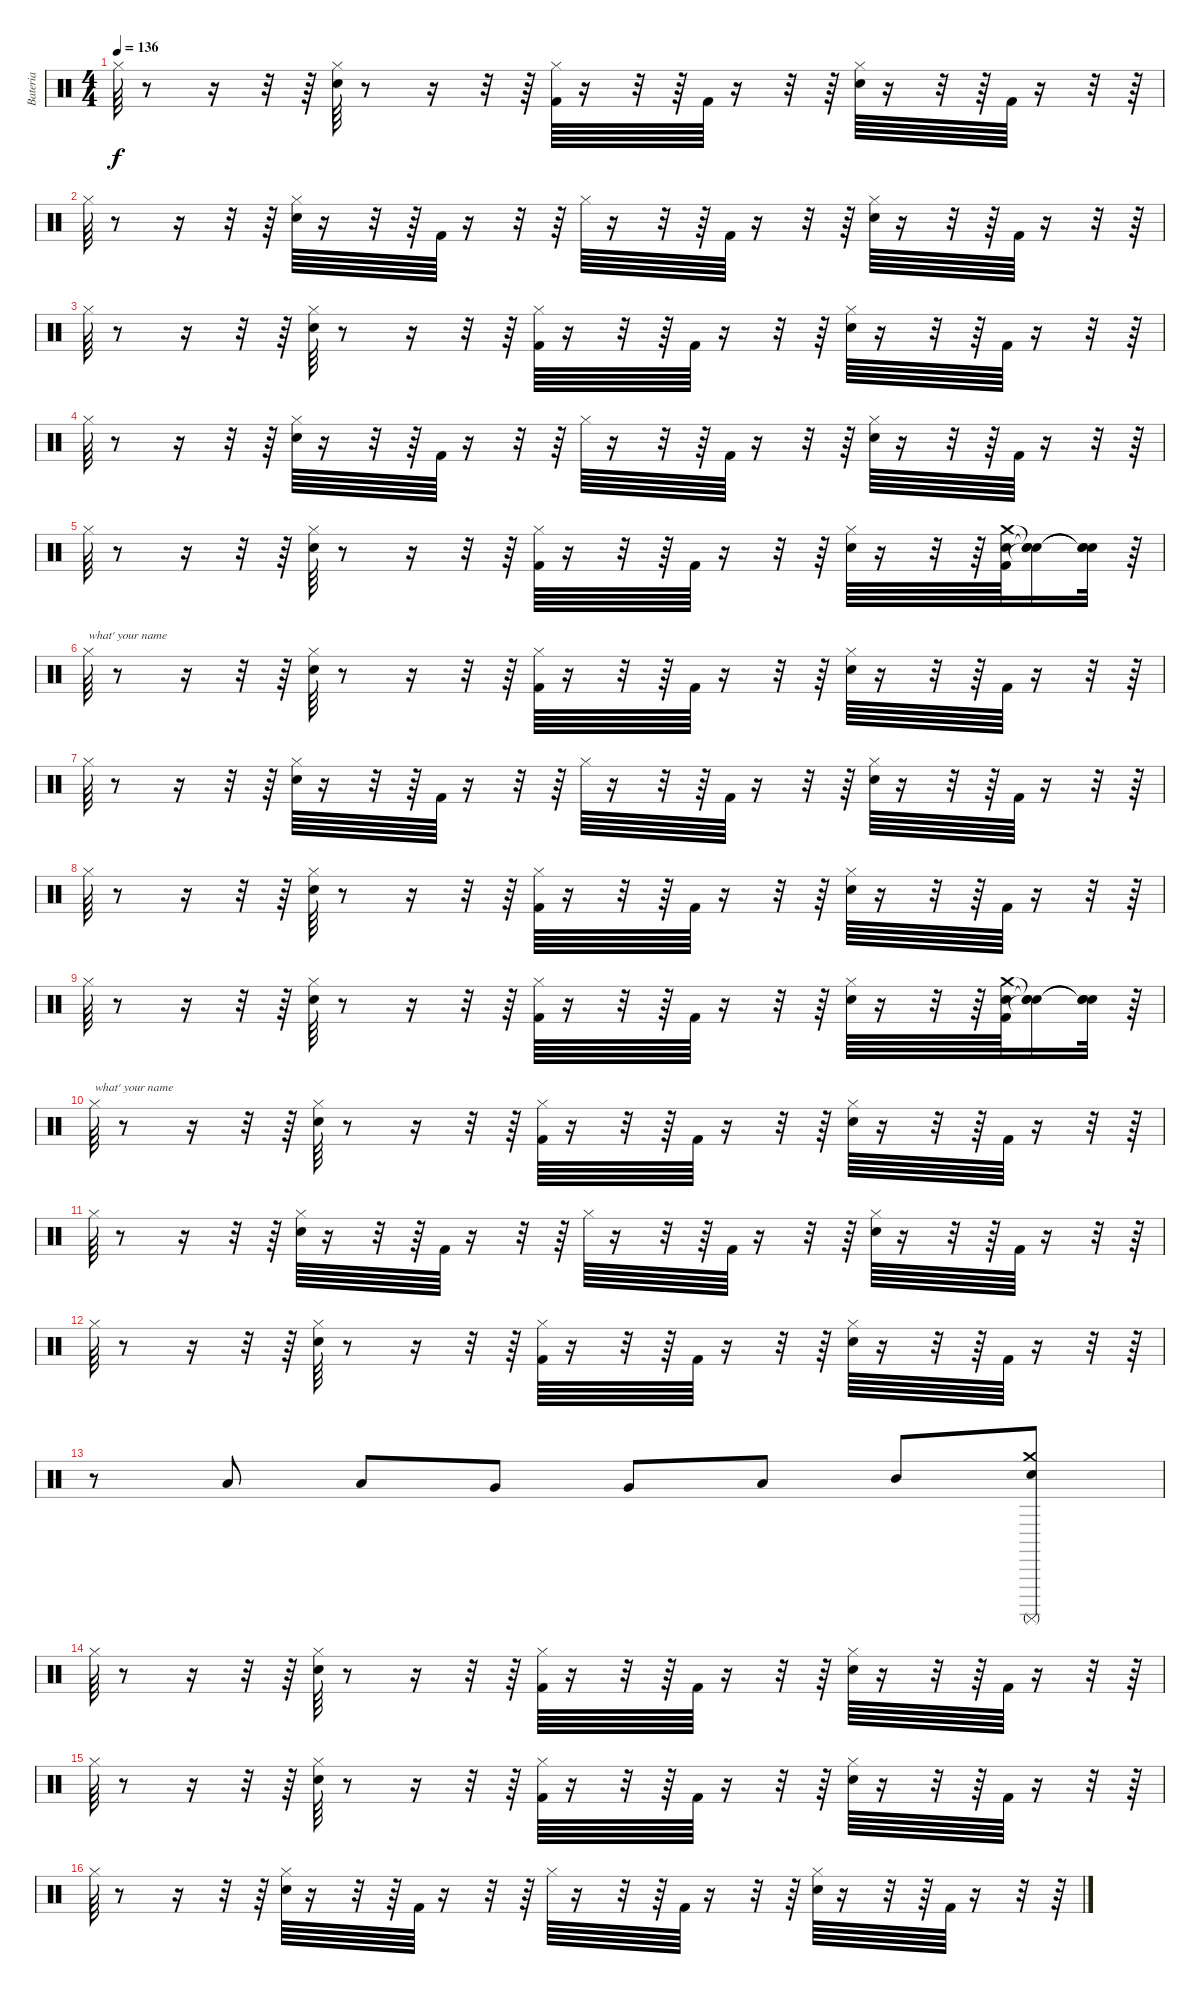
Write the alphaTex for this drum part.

\track ("Bateria" "Bateria") {instrument percussion}
\staff {score}
\articulation defaults
\ts (4 4)
\tempo 136
\clef neutral
\ks c "Hi-Hat (closed)".64{dy f}
r.8 r.16 r.32 r.64 ("Snare (hit) 2" "Hi-Hat (closed)").64 r.8 r.16 r.32 r.64 ("Kick (hit) 2" "Hi-Hat (closed)").64 r.16 r.32 r.64 "Kick (hit) 2".64 r.16 r.32 r.64 ("Snare (hit) 2" "Hi-Hat (closed)").64 r.16 r.32 r.64 "Kick (hit) 2".64 r.16 r.32 r.64 |
"Hi-Hat (closed)".64 r.8 r.16 r.32 r.64 ("Snare (hit) 2" "Hi-Hat (closed)").64 r.16 r.32 r.64 "Kick (hit) 2".64 r.16 r.32 r.64 "Hi-Hat (closed)".64 r.16 r.32 r.64 "Kick (hit) 2".64 r.16 r.32 r.64 ("Snare (hit) 2" "Hi-Hat (closed)").64 r.16 r.32 r.64 "Kick (hit) 2".64 r.16 r.32 r.64 |
"Hi-Hat (closed)".64 r.8 r.16 r.32 r.64 ("Snare (hit) 2" "Hi-Hat (closed)").64 r.8 r.16 r.32 r.64 ("Kick (hit) 2" "Hi-Hat (closed)").64 r.16 r.32 r.64 "Kick (hit) 2".64 r.16 r.32 r.64 ("Snare (hit) 2" "Hi-Hat (closed)").64 r.16 r.32 r.64 "Kick (hit) 2".64 r.16 r.32 r.64 |
"Hi-Hat (closed)".64 r.8 r.16 r.32 r.64 ("Snare (hit) 2" "Hi-Hat (closed)").64 r.16 r.32 r.64 "Kick (hit) 2".64 r.16 r.32 r.64 "Hi-Hat (closed)".64 r.16 r.32 r.64 "Kick (hit) 2".64 r.16 r.32 r.64 ("Snare (hit) 2" "Hi-Hat (closed)").64 r.16 r.32 r.64 "Kick (hit) 2".64 r.16 r.32 r.64 |
"Hi-Hat (closed)".64 r.8 r.16 r.32 r.64 ("Snare (hit) 2" "Hi-Hat (closed)").64 r.8 r.16 r.32 r.64 ("Kick (hit) 2" "Hi-Hat (closed)").64 r.16 r.32 r.64 "Kick (hit) 2".64 r.16 r.32 r.64 ("Snare (hit) 2" "Hi-Hat (closed)").64 r.16 r.32 r.64 ("Kick (hit) 2" "Snare (hit) 2" "Crash medium (hit)").64 ("Snare (hit)"{t} "Snare (hit)"{t} "Snare (hit)"{t}).16 ("Snare (hit)"{t} "Snare (hit)"{t} "Snare (hit)"{t}).32 r.64 |
"Hi-Hat (closed)".64{txt "what' your name"} r.8 r.16 r.32 r.64 ("Snare (hit) 2" "Hi-Hat (closed)").64 r.8 r.16 r.32 r.64 ("Kick (hit) 2" "Hi-Hat (closed)").64 r.16 r.32 r.64 "Kick (hit) 2".64 r.16 r.32 r.64 ("Snare (hit) 2" "Hi-Hat (closed)").64 r.16 r.32 r.64 "Kick (hit) 2".64 r.16 r.32 r.64 |
"Hi-Hat (closed)".64 r.8 r.16 r.32 r.64 ("Snare (hit) 2" "Hi-Hat (closed)").64 r.16 r.32 r.64 "Kick (hit) 2".64 r.16 r.32 r.64 "Hi-Hat (closed)".64 r.16 r.32 r.64 "Kick (hit) 2".64 r.16 r.32 r.64 ("Snare (hit) 2" "Hi-Hat (closed)").64 r.16 r.32 r.64 "Kick (hit) 2".64 r.16 r.32 r.64 |
"Hi-Hat (closed)".64 r.8 r.16 r.32 r.64 ("Snare (hit) 2" "Hi-Hat (closed)").64 r.8 r.16 r.32 r.64 ("Kick (hit) 2" "Hi-Hat (closed)").64 r.16 r.32 r.64 "Kick (hit) 2".64 r.16 r.32 r.64 ("Snare (hit) 2" "Hi-Hat (closed)").64 r.16 r.32 r.64 "Kick (hit) 2".64 r.16 r.32 r.64 |
"Hi-Hat (closed)".64 r.8 r.16 r.32 r.64 ("Snare (hit) 2" "Hi-Hat (closed)").64 r.8 r.16 r.32 r.64 ("Kick (hit) 2" "Hi-Hat (closed)").64 r.16 r.32 r.64 "Kick (hit) 2".64 r.16 r.32 r.64 ("Snare (hit) 2" "Hi-Hat (closed)").64 r.16 r.32 r.64 ("Kick (hit) 2" "Snare (hit) 2" "Crash medium (hit)").64 ("Snare (hit)"{t} "Snare (hit)"{t} "Snare (hit)"{t}).16 ("Snare (hit)"{t} "Snare (hit)"{t} "Snare (hit)"{t}).32 r.64 |
"Hi-Hat (closed)".64{txt "what' your name"} r.8 r.16 r.32 r.64 ("Snare (hit) 2" "Hi-Hat (closed)").64 r.8 r.16 r.32 r.64 ("Kick (hit) 2" "Hi-Hat (closed)").64 r.16 r.32 r.64 "Kick (hit) 2".64 r.16 r.32 r.64 ("Snare (hit) 2" "Hi-Hat (closed)").64 r.16 r.32 r.64 "Kick (hit) 2".64 r.16 r.32 r.64 |
"Hi-Hat (closed)".64 r.8 r.16 r.32 r.64 ("Snare (hit) 2" "Hi-Hat (closed)").64 r.16 r.32 r.64 "Kick (hit) 2".64 r.16 r.32 r.64 "Hi-Hat (closed)".64 r.16 r.32 r.64 "Kick (hit) 2".64 r.16 r.32 r.64 ("Snare (hit) 2" "Hi-Hat (closed)").64 r.16 r.32 r.64 "Kick (hit) 2".64 r.16 r.32 r.64 |
"Hi-Hat (closed)".64 r.8 r.16 r.32 r.64 ("Snare (hit) 2" "Hi-Hat (closed)").64 r.8 r.16 r.32 r.64 ("Kick (hit) 2" "Hi-Hat (closed)").64 r.16 r.32 r.64 "Kick (hit) 2".64 r.16 r.32 r.64 ("Snare (hit) 2" "Hi-Hat (closed)").64 r.16 r.32 r.64 "Kick (hit) 2".64 r.16 r.32 r.64 |
r.8 "Low Floor Tom (hit)".8 "Low Floor Tom (hit)".8 "Very Low Tom (hit)".8 "Very Low Tom (hit)".8 "Low Tom (hit)".8 "Mid Tom (hit)".8 ("Snare (hit) 2" "Crash medium (hit)" "Surdo (mute)").8 |
"Hi-Hat (closed)".64 r.8 r.16 r.32 r.64 ("Snare (hit) 2" "Hi-Hat (closed)").64 r.8 r.16 r.32 r.64 ("Kick (hit) 2" "Hi-Hat (closed)").64 r.16 r.32 r.64 "Kick (hit) 2".64 r.16 r.32 r.64 ("Snare (hit) 2" "Hi-Hat (closed)").64 r.16 r.32 r.64 "Kick (hit) 2".64 r.16 r.32 r.64 |
"Hi-Hat (closed)".64 r.8 r.16 r.32 r.64 ("Snare (hit) 2" "Hi-Hat (closed)").64 r.8 r.16 r.32 r.64 ("Kick (hit) 2" "Hi-Hat (closed)").64 r.16 r.32 r.64 "Kick (hit) 2".64 r.16 r.32 r.64 ("Snare (hit) 2" "Hi-Hat (closed)").64 r.16 r.32 r.64 "Kick (hit) 2".64 r.16 r.32 r.64 |
"Hi-Hat (closed)".64 r.8 r.16 r.32 r.64 ("Snare (hit) 2" "Hi-Hat (closed)").64 r.16 r.32 r.64 "Kick (hit) 2".64 r.16 r.32 r.64 "Hi-Hat (closed)".64 r.16 r.32 r.64 "Kick (hit) 2".64 r.16 r.32 r.64 ("Snare (hit) 2" "Hi-Hat (closed)").64 r.16 r.32 r.64 "Kick (hit) 2".64 r.16 r.32 r.64
